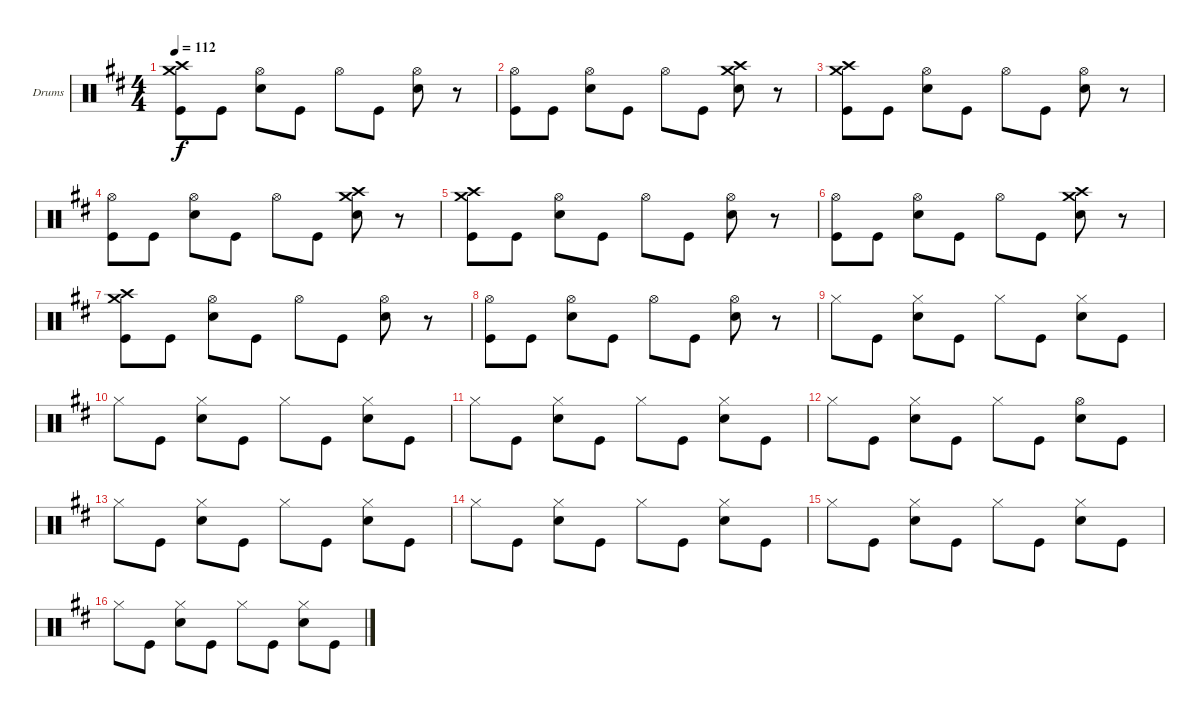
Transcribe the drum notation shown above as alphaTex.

\defaultSystemsLayout 4
\bracketExtendMode groupsimilarinstruments
\firstSystemTrackNameOrientation horizontal
\otherSystemsTrackNameOrientation horizontal
\track ("Drumkit" "Drums") {instrument percussion}
\staff {score}
\articulation defaults
\ts (4 4)
\tempo 112
\clef neutral
\scale
1.05044
\ks d
("Crash medium (hit)" "Crash high (hit)" "Kick (hit)").8{dy f} "Kick (hit)".8 ("Hi-Hat (open)" "Snare (hit) 2").8 "Kick (hit)".8 "Hi-Hat (open)".8 "Kick (hit)".8 ("Hi-Hat (open)" "Snare (hit) 2").8 r.8 |
\scale
0.949559 ("Hi-Hat (open)" "Kick (hit)").8 "Kick (hit)".8 ("Hi-Hat (open)" "Snare (hit) 2").8 "Kick (hit)".8 "Hi-Hat (open)".8 "Kick (hit)".8 ("Crash medium (hit)" "Crash high (hit)" "Snare (hit) 2").8 r.8 |
\scale
1.05044 ("Crash medium (hit)" "Crash high (hit)" "Kick (hit)").8 "Kick (hit)".8 ("Hi-Hat (open)" "Snare (hit) 2").8 "Kick (hit)".8 "Hi-Hat (open)".8 "Kick (hit)".8 ("Hi-Hat (open)" "Snare (hit) 2").8 r.8 |
\scale
0.949559 ("Hi-Hat (open)" "Kick (hit)").8 "Kick (hit)".8 ("Hi-Hat (open)" "Snare (hit) 2").8 "Kick (hit)".8 "Hi-Hat (open)".8 "Kick (hit)".8 ("Crash medium (hit)" "Crash high (hit)" "Snare (hit) 2").8 r.8 |
\scale
1.05044 ("Crash medium (hit)" "Crash high (hit)" "Kick (hit)").8 "Kick (hit)".8 ("Hi-Hat (open)" "Snare (hit) 2").8 "Kick (hit)".8 "Hi-Hat (open)".8 "Kick (hit)".8 ("Hi-Hat (open)" "Snare (hit) 2").8 r.8 |
\scale
0.949559 ("Hi-Hat (open)" "Kick (hit)").8 "Kick (hit)".8 ("Hi-Hat (open)" "Snare (hit) 2").8 "Kick (hit)".8 "Hi-Hat (open)".8 "Kick (hit)".8 ("Crash medium (hit)" "Crash high (hit)" "Snare (hit) 2").8 r.8 |
\scale
1.05044 ("Crash medium (hit)" "Crash high (hit)" "Kick (hit)").8 "Kick (hit)".8 ("Hi-Hat (open)" "Snare (hit) 2").8 "Kick (hit)".8 "Hi-Hat (open)".8 "Kick (hit)".8 ("Hi-Hat (open)" "Snare (hit) 2").8 r.8 |
\scale
0.949559 ("Hi-Hat (open)" "Kick (hit)").8 "Kick (hit)".8 ("Hi-Hat (open)" "Snare (hit) 2").8 "Kick (hit)".8 "Hi-Hat (open)".8 "Kick (hit)".8 ("Hi-Hat (open)" "Snare (hit) 2").8 r.8 |
\scale
1.05044 "Hi-Hat (closed)".8 "Kick (hit)".8 ("Hi-Hat (closed)" "Snare (hit) 2").8 "Kick (hit)".8 "Hi-Hat (closed)".8 "Kick (hit)".8 ("Hi-Hat (closed)" "Snare (hit) 2").8 "Kick (hit)".8 |
\scale
0.949559 "Hi-Hat (closed)".8 "Kick (hit)".8 ("Hi-Hat (closed)" "Snare (hit) 2").8 "Kick (hit)".8 "Hi-Hat (closed)".8 "Kick (hit)".8 ("Hi-Hat (closed)" "Snare (hit) 2").8 "Kick (hit)".8 |
\scale
1.05044 "Hi-Hat (closed)".8 "Kick (hit)".8 ("Hi-Hat (closed)" "Snare (hit) 2").8 "Kick (hit)".8 "Hi-Hat (closed)".8 "Kick (hit)".8 ("Hi-Hat (closed)" "Snare (hit) 2").8 "Kick (hit)".8 |
\scale
0.949559 "Hi-Hat (closed)".8 "Kick (hit)".8 ("Hi-Hat (closed)" "Snare (hit) 2").8 "Kick (hit)".8 "Hi-Hat (closed)".8 "Kick (hit)".8 ("Hi-Hat (open)" "Snare (hit) 2").8 "Kick (hit)".8 |
\scale
1.05044 "Hi-Hat (closed)".8 "Kick (hit)".8 ("Hi-Hat (closed)" "Snare (hit) 2").8 "Kick (hit)".8 "Hi-Hat (closed)".8 "Kick (hit)".8 ("Hi-Hat (closed)" "Snare (hit) 2").8 "Kick (hit)".8 |
\scale
0.949559 "Hi-Hat (closed)".8 "Kick (hit)".8 ("Hi-Hat (closed)" "Snare (hit) 2").8 "Kick (hit)".8 "Hi-Hat (closed)".8 "Kick (hit)".8 ("Hi-Hat (closed)" "Snare (hit) 2").8 "Kick (hit)".8 |
\scale
1.05044 "Hi-Hat (closed)".8 "Kick (hit)".8 ("Hi-Hat (closed)" "Snare (hit) 2").8 "Kick (hit)".8 "Hi-Hat (closed)".8 "Kick (hit)".8 ("Hi-Hat (closed)" "Snare (hit) 2").8 "Kick (hit)".8 |
\scale
0.949559 "Hi-Hat (closed)".8 "Kick (hit)".8 ("Hi-Hat (closed)" "Snare (hit) 2").8 "Kick (hit)".8 "Hi-Hat (closed)".8 "Kick (hit)".8 ("Hi-Hat (closed)" "Snare (hit) 2").8 "Kick (hit)".8
